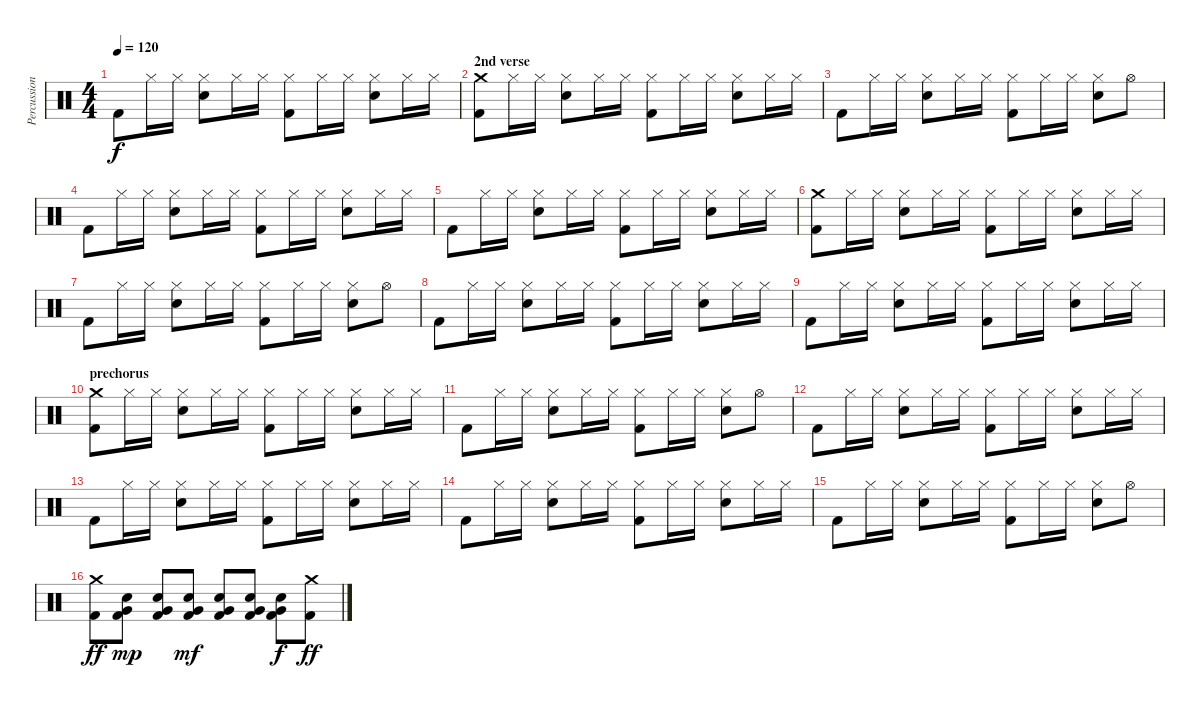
\track ("Percussion" "Percussion") {instrument percussion}
\staff {score}
\articulation defaults
\ts (4 4)
\tempo 120
\clef neutral
\ks c "Kick (hit) 2".8{dy f} "Hi-Hat (closed)".16 "Hi-Hat (closed)".16
("Hi-Hat (closed)" "Snare (hit) 2").8 "Hi-Hat (closed)".16 "Hi-Hat (closed)".16 ("Hi-Hat (closed)" "Kick (hit) 2").8 "Hi-Hat (closed)".16 "Hi-Hat (closed)".16 ("Hi-Hat (closed)" "Snare (hit) 2").8 "Hi-Hat (closed)".16 "Hi-Hat (closed)".16 |
\section ("" "2nd verse")
("Crash medium (hit)" "Kick (hit) 2").8 "Hi-Hat (closed)".16 "Hi-Hat (closed)".16 ("Hi-Hat (closed)" "Snare (hit) 2").8 "Hi-Hat (closed)".16 "Hi-Hat (closed)".16 ("Hi-Hat (closed)" "Kick (hit) 2").8 "Hi-Hat (closed)".16 "Hi-Hat (closed)".16 ("Hi-Hat (closed)" "Snare (hit) 2").8 "Hi-Hat (closed)".16 "Hi-Hat (closed)".16 |
"Kick (hit) 2".8 "Hi-Hat (closed)".16 "Hi-Hat (closed)".16 ("Hi-Hat (closed)" "Snare (hit) 2").8 "Hi-Hat (closed)".16 "Hi-Hat (closed)".16 ("Hi-Hat (closed)" "Kick (hit) 2").8 "Hi-Hat (closed)".16 "Hi-Hat (closed)".16 ("Hi-Hat (closed)" "Snare (hit) 2").8 "Hi-Hat (open)".8 |
"Kick (hit) 2".8 "Hi-Hat (closed)".16 "Hi-Hat (closed)".16 ("Hi-Hat (closed)" "Snare (hit) 2").8 "Hi-Hat (closed)".16 "Hi-Hat (closed)".16 ("Hi-Hat (closed)" "Kick (hit) 2").8 "Hi-Hat (closed)".16 "Hi-Hat (closed)".16 ("Hi-Hat (closed)" "Snare (hit) 2").8 "Hi-Hat (closed)".16 "Hi-Hat (closed)".16 |
"Kick (hit) 2".8 "Hi-Hat (closed)".16 "Hi-Hat (closed)".16 ("Hi-Hat (closed)" "Snare (hit) 2").8 "Hi-Hat (closed)".16 "Hi-Hat (closed)".16 ("Hi-Hat (closed)" "Kick (hit) 2").8 "Hi-Hat (closed)".16 "Hi-Hat (closed)".16 ("Hi-Hat (closed)" "Snare (hit) 2").8 "Hi-Hat (closed)".16 "Hi-Hat (closed)".16 |
("Crash medium (hit)" "Kick (hit) 2").8 "Hi-Hat (closed)".16 "Hi-Hat (closed)".16 ("Hi-Hat (closed)" "Snare (hit) 2").8 "Hi-Hat (closed)".16 "Hi-Hat (closed)".16 ("Hi-Hat (closed)" "Kick (hit) 2").8 "Hi-Hat (closed)".16 "Hi-Hat (closed)".16 ("Hi-Hat (closed)" "Snare (hit) 2").8 "Hi-Hat (closed)".16 "Hi-Hat (closed)".16 |
"Kick (hit) 2".8 "Hi-Hat (closed)".16 "Hi-Hat (closed)".16 ("Hi-Hat (closed)" "Snare (hit) 2").8 "Hi-Hat (closed)".16 "Hi-Hat (closed)".16 ("Hi-Hat (closed)" "Kick (hit) 2").8 "Hi-Hat (closed)".16 "Hi-Hat (closed)".16 ("Hi-Hat (closed)" "Snare (hit) 2").8 "Hi-Hat (open)".8 |
"Kick (hit) 2".8 "Hi-Hat (closed)".16 "Hi-Hat (closed)".16 ("Hi-Hat (closed)" "Snare (hit) 2").8 "Hi-Hat (closed)".16 "Hi-Hat (closed)".16 ("Hi-Hat (closed)" "Kick (hit) 2").8 "Hi-Hat (closed)".16 "Hi-Hat (closed)".16 ("Hi-Hat (closed)" "Snare (hit) 2").8 "Hi-Hat (closed)".16 "Hi-Hat (closed)".16 |
"Kick (hit) 2".8 "Hi-Hat (closed)".16 "Hi-Hat (closed)".16 ("Hi-Hat (closed)" "Snare (hit) 2").8 "Hi-Hat (closed)".16 "Hi-Hat (closed)".16 ("Hi-Hat (closed)" "Kick (hit) 2").8 "Hi-Hat (closed)".16 "Hi-Hat (closed)".16 ("Hi-Hat (closed)" "Snare (hit) 2").8 "Hi-Hat (closed)".16 "Hi-Hat (closed)".16 |
\section ("" "prechorus")
("Crash medium (hit)" "Kick (hit) 2").8 "Hi-Hat (closed)".16 "Hi-Hat (closed)".16 ("Hi-Hat (closed)" "Snare (hit) 2").8 "Hi-Hat (closed)".16 "Hi-Hat (closed)".16 ("Hi-Hat (closed)" "Kick (hit) 2").8 "Hi-Hat (closed)".16 "Hi-Hat (closed)".16 ("Hi-Hat (closed)" "Snare (hit) 2").8 "Hi-Hat (closed)".16 "Hi-Hat (closed)".16 |
"Kick (hit) 2".8 "Hi-Hat (closed)".16 "Hi-Hat (closed)".16 ("Hi-Hat (closed)" "Snare (hit) 2").8 "Hi-Hat (closed)".16 "Hi-Hat (closed)".16 ("Hi-Hat (closed)" "Kick (hit) 2").8 "Hi-Hat (closed)".16 "Hi-Hat (closed)".16 ("Hi-Hat (closed)" "Snare (hit) 2").8 "Hi-Hat (open)".8 |
"Kick (hit) 2".8 "Hi-Hat (closed)".16 "Hi-Hat (closed)".16 ("Hi-Hat (closed)" "Snare (hit) 2").8 "Hi-Hat (closed)".16 "Hi-Hat (closed)".16 ("Hi-Hat (closed)" "Kick (hit) 2").8 "Hi-Hat (closed)".16 "Hi-Hat (closed)".16 ("Hi-Hat (closed)" "Snare (hit) 2").8 "Hi-Hat (closed)".16 "Hi-Hat (closed)".16 |
"Kick (hit) 2".8 "Hi-Hat (closed)".16 "Hi-Hat (closed)".16 ("Hi-Hat (closed)" "Snare (hit) 2").8 "Hi-Hat (closed)".16 "Hi-Hat (closed)".16 ("Hi-Hat (closed)" "Kick (hit) 2").8 "Hi-Hat (closed)".16 "Hi-Hat (closed)".16 ("Hi-Hat (closed)" "Snare (hit) 2").8 "Hi-Hat (closed)".16 "Hi-Hat (closed)".16 |
"Kick (hit) 2".8 "Hi-Hat (closed)".16 "Hi-Hat (closed)".16 ("Hi-Hat (closed)" "Snare (hit) 2").8 "Hi-Hat (closed)".16 "Hi-Hat (closed)".16 ("Hi-Hat (closed)" "Kick (hit) 2").8 "Hi-Hat (closed)".16 "Hi-Hat (closed)".16 ("Hi-Hat (closed)" "Snare (hit) 2").8 "Hi-Hat (closed)".16 "Hi-Hat (closed)".16 |
"Kick (hit) 2".8 "Hi-Hat (closed)".16 "Hi-Hat (closed)".16 ("Hi-Hat (closed)" "Snare (hit) 2").8 "Hi-Hat (closed)".16 "Hi-Hat (closed)".16 ("Hi-Hat (closed)" "Kick (hit) 2").8 "Hi-Hat (closed)".16 "Hi-Hat (closed)".16 ("Hi-Hat (closed)" "Snare (hit) 2").8 "Hi-Hat (open)".8 |
("Crash medium (hit)" "Kick (hit) 2").8{dy ff} ("Very Low Tom (hit)" "Snare (hit) 2" "Kick (hit) 2").8{dy mp} ("Very Low Tom (hit)" "Snare (hit) 2" "Kick (hit) 2").8 ("Very Low Tom (hit)" "Snare (hit) 2" "Kick (hit) 2").8{dy mf} ("Very Low Tom (hit)" "Snare (hit) 2" "Kick (hit) 2").8 ("Very Low Tom (hit)" "Snare (hit) 2" "Kick (hit) 2").8 ("Very Low Tom (hit)" "Snare (hit) 2" "Kick (hit) 2").8{dy f} ("Crash medium (hit)" "Kick (hit) 2").8{dy ff}
